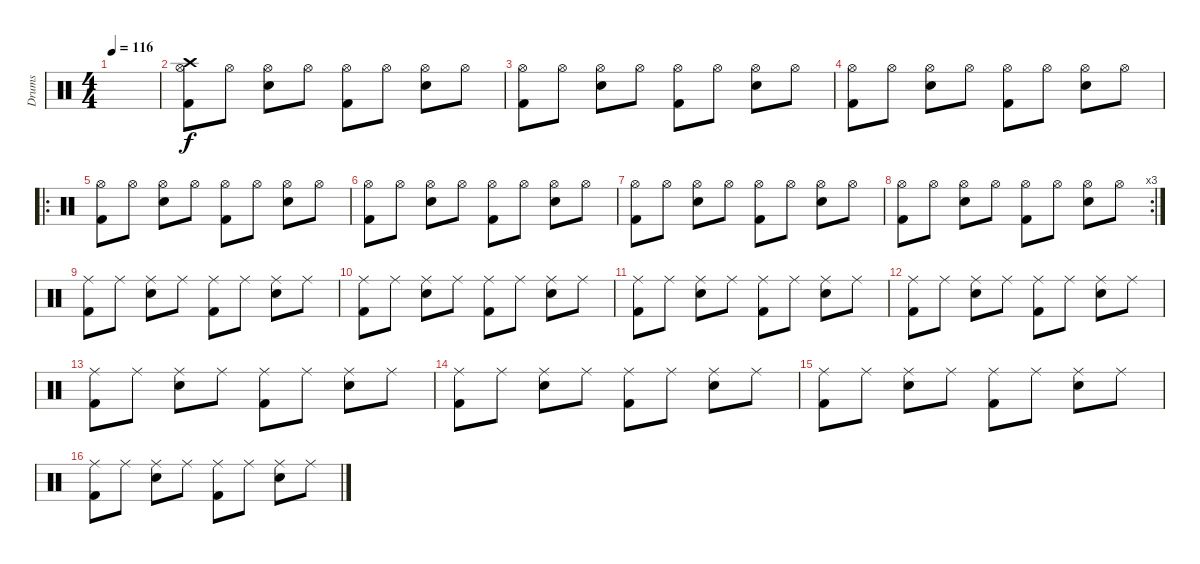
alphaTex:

\track ("Drums" "Drums") {instrument percussion}
\staff {score}
\articulation defaults
\ts (4 4)
\tempo 116
\clef neutral
\ks c
|
("Hi-Hat (open)" "Crash high (hit)" "Kick (hit) 2").8 "Hi-Hat (open)".8 ("Hi-Hat (open)" "Electric Snare (hit)").8 "Hi-Hat (open)".8 ("Hi-Hat (open)" "Kick (hit) 2").8 "Hi-Hat (open)".8 ("Hi-Hat (open)" "Electric Snare (hit)").8 "Hi-Hat (open)".8 |
("Hi-Hat (open)" "Kick (hit) 2").8 "Hi-Hat (open)".8 ("Hi-Hat (open)" "Electric Snare (hit)").8 "Hi-Hat (open)".8 ("Hi-Hat (open)" "Kick (hit) 2").8 "Hi-Hat (open)".8 ("Hi-Hat (open)" "Electric Snare (hit)").8 "Hi-Hat (open)".8 |
("Hi-Hat (open)" "Kick (hit) 2").8 "Hi-Hat (open)".8 ("Hi-Hat (open)" "Electric Snare (hit)").8 "Hi-Hat (open)".8 ("Hi-Hat (open)" "Kick (hit) 2").8 "Hi-Hat (open)".8 ("Hi-Hat (open)" "Electric Snare (hit)").8 "Hi-Hat (open)".8 |
\ro
("Hi-Hat (open)" "Kick (hit) 2").8 "Hi-Hat (open)".8 ("Hi-Hat (open)" "Electric Snare (hit)").8 "Hi-Hat (open)".8 ("Hi-Hat (open)" "Kick (hit) 2").8 "Hi-Hat (open)".8 ("Hi-Hat (open)" "Electric Snare (hit)").8 "Hi-Hat (open)".8 |
("Hi-Hat (open)" "Kick (hit) 2").8 "Hi-Hat (open)".8 ("Hi-Hat (open)" "Electric Snare (hit)").8 "Hi-Hat (open)".8 ("Hi-Hat (open)" "Kick (hit) 2").8 "Hi-Hat (open)".8 ("Hi-Hat (open)" "Electric Snare (hit)").8 "Hi-Hat (open)".8 |
("Hi-Hat (open)" "Kick (hit) 2").8 "Hi-Hat (open)".8 ("Hi-Hat (open)" "Electric Snare (hit)").8 "Hi-Hat (open)".8 ("Hi-Hat (open)" "Kick (hit) 2").8 "Hi-Hat (open)".8 ("Hi-Hat (open)" "Electric Snare (hit)").8 "Hi-Hat (open)".8 |
\rc 3
("Hi-Hat (open)" "Kick (hit) 2").8 "Hi-Hat (open)".8 ("Hi-Hat (open)" "Electric Snare (hit)").8 "Hi-Hat (open)".8 ("Hi-Hat (open)" "Kick (hit) 2").8 "Hi-Hat (open)".8 ("Hi-Hat (open)" "Electric Snare (hit)").8 "Hi-Hat (open)".8 |
("Ride (middle)" "Kick (hit) 2").8 "Ride (middle)".8 ("Ride (middle)" "Electric Snare (hit)").8 "Ride (middle)".8 ("Ride (middle)" "Kick (hit) 2").8 "Ride (middle)".8 ("Ride (middle)" "Electric Snare (hit)").8 "Ride (middle)".8 |
("Ride (middle)" "Kick (hit) 2").8 "Ride (middle)".8 ("Ride (middle)" "Electric Snare (hit)").8 "Ride (middle)".8 ("Ride (middle)" "Kick (hit) 2").8 "Ride (middle)".8 ("Ride (middle)" "Electric Snare (hit)").8 "Ride (middle)".8 |
("Ride (middle)" "Kick (hit) 2").8 "Ride (middle)".8 ("Ride (middle)" "Electric Snare (hit)").8 "Ride (middle)".8 ("Ride (middle)" "Kick (hit) 2").8 "Ride (middle)".8 ("Ride (middle)" "Electric Snare (hit)").8 "Ride (middle)".8 |
("Ride (middle)" "Kick (hit) 2").8 "Ride (middle)".8 ("Ride (middle)" "Electric Snare (hit)").8 "Ride (middle)".8 ("Ride (middle)" "Kick (hit) 2").8 "Ride (middle)".8 ("Ride (middle)" "Electric Snare (hit)").8 "Ride (middle)".8 |
("Ride (middle)" "Kick (hit) 2").8 "Ride (middle)".8 ("Ride (middle)" "Electric Snare (hit)").8 "Ride (middle)".8 ("Ride (middle)" "Kick (hit) 2").8 "Ride (middle)".8 ("Ride (middle)" "Electric Snare (hit)").8 "Ride (middle)".8 |
("Ride (middle)" "Kick (hit) 2").8 "Ride (middle)".8 ("Ride (middle)" "Electric Snare (hit)").8 "Ride (middle)".8 ("Ride (middle)" "Kick (hit) 2").8 "Ride (middle)".8 ("Ride (middle)" "Electric Snare (hit)").8 "Ride (middle)".8 |
("Ride (middle)" "Kick (hit) 2").8 "Ride (middle)".8 ("Ride (middle)" "Electric Snare (hit)").8 "Ride (middle)".8 ("Ride (middle)" "Kick (hit) 2").8 "Ride (middle)".8 ("Ride (middle)" "Electric Snare (hit)").8 "Ride (middle)".8 |
("Ride (middle)" "Kick (hit) 2").8 "Ride (middle)".8 ("Ride (middle)" "Electric Snare (hit)").8 "Ride (middle)".8 ("Ride (middle)" "Kick (hit) 2").8 "Ride (middle)".8 ("Ride (middle)" "Electric Snare (hit)").8 "Ride (middle)".8
